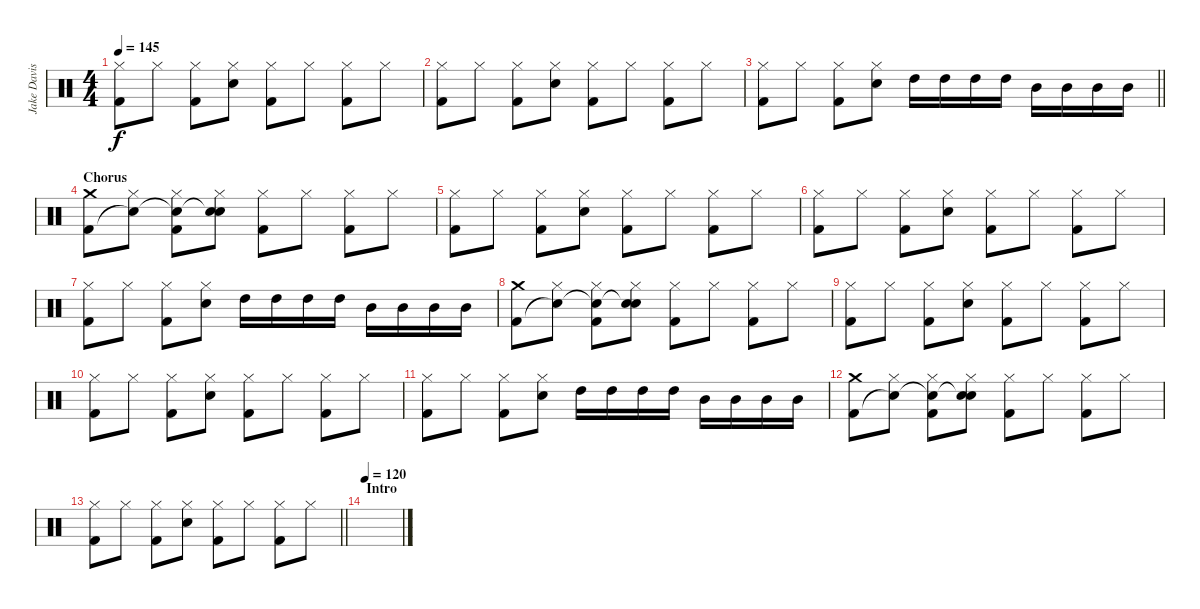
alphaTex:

\track ("Jake Davison (Drums)" "Jake Davis") {instrument percussion}
\staff {score}
\articulation defaults
\ts (4 4)
\tempo 145
\clef neutral
\ks c
("Hi-Hat (closed)" "Kick (hit) 2").8{dy f} "Hi-Hat (closed)".8 ("Hi-Hat (closed)" "Kick (hit) 2").8 ("Hi-Hat (closed)" "Electric Snare (hit)").8 ("Hi-Hat (closed)" "Kick (hit) 2").8 "Hi-Hat (closed)".8 ("Hi-Hat (closed)" "Kick (hit) 2").8 "Hi-Hat (closed)".8 |
("Hi-Hat (closed)" "Kick (hit) 2").8 "Hi-Hat (closed)".8 ("Hi-Hat (closed)" "Kick (hit) 2").8 ("Hi-Hat (closed)" "Electric Snare (hit)").8 ("Hi-Hat (closed)" "Kick (hit) 2").8 "Hi-Hat (closed)".8 ("Hi-Hat (closed)" "Kick (hit) 2").8 "Hi-Hat (closed)".8 |
\barLineRight lightlight
("Hi-Hat (closed)" "Kick (hit) 2").8 "Hi-Hat (closed)".8 ("Hi-Hat (closed)" "Kick (hit) 2").8 ("Hi-Hat (closed)" "Electric Snare (hit)").8 "High Tom (hit)".16 "High Tom (hit)".16 "High Tom (hit)".16 "High Tom (hit)".16 "Mid Tom (hit)".16 "Mid Tom (hit)".16 "Mid Tom (hit)".16 "Mid Tom (hit)".16 |
\section ("" "Chorus")
("Crash medium (hit)" "Kick (hit) 2").8 ("Hi-Hat (closed)" "Snare (hit)"{t}).8 ("Hi-Hat (closed)" "Snare (hit)"{t} "Kick (hit) 2").8 ("Hi-Hat (closed)" "Snare (hit)"{t} "Electric Snare (hit)").8 ("Hi-Hat (closed)" "Kick (hit) 2").8 "Hi-Hat (closed)".8 ("Hi-Hat (closed)" "Kick (hit) 2").8 "Hi-Hat (closed)".8 |
("Hi-Hat (closed)" "Kick (hit) 2").8 "Hi-Hat (closed)".8 ("Hi-Hat (closed)" "Kick (hit) 2").8 ("Hi-Hat (closed)" "Electric Snare (hit)").8 ("Hi-Hat (closed)" "Kick (hit) 2").8 "Hi-Hat (closed)".8 ("Hi-Hat (closed)" "Kick (hit) 2").8 "Hi-Hat (closed)".8 |
("Hi-Hat (closed)" "Kick (hit) 2").8 "Hi-Hat (closed)".8 ("Hi-Hat (closed)" "Kick (hit) 2").8 ("Hi-Hat (closed)" "Electric Snare (hit)").8 ("Hi-Hat (closed)" "Kick (hit) 2").8 "Hi-Hat (closed)".8 ("Hi-Hat (closed)" "Kick (hit) 2").8 "Hi-Hat (closed)".8 |
("Hi-Hat (closed)" "Kick (hit) 2").8 "Hi-Hat (closed)".8 ("Hi-Hat (closed)" "Kick (hit) 2").8 ("Hi-Hat (closed)" "Electric Snare (hit)").8 "High Tom (hit)".16 "High Tom (hit)".16 "High Tom (hit)".16 "High Tom (hit)".16 "Mid Tom (hit)".16 "Mid Tom (hit)".16 "Mid Tom (hit)".16 "Mid Tom (hit)".16 |
("Crash medium (hit)" "Kick (hit) 2").8 ("Hi-Hat (closed)" "Snare (hit)"{t}).8 ("Hi-Hat (closed)" "Snare (hit)"{t} "Kick (hit) 2").8 ("Hi-Hat (closed)" "Snare (hit)"{t} "Electric Snare (hit)").8 ("Hi-Hat (closed)" "Kick (hit) 2").8 "Hi-Hat (closed)".8 ("Hi-Hat (closed)" "Kick (hit) 2").8 "Hi-Hat (closed)".8 |
("Hi-Hat (closed)" "Kick (hit) 2").8 "Hi-Hat (closed)".8 ("Hi-Hat (closed)" "Kick (hit) 2").8 ("Hi-Hat (closed)" "Electric Snare (hit)").8 ("Hi-Hat (closed)" "Kick (hit) 2").8 "Hi-Hat (closed)".8 ("Hi-Hat (closed)" "Kick (hit) 2").8 "Hi-Hat (closed)".8 |
("Hi-Hat (closed)" "Kick (hit) 2").8 "Hi-Hat (closed)".8 ("Hi-Hat (closed)" "Kick (hit) 2").8 ("Hi-Hat (closed)" "Electric Snare (hit)").8 ("Hi-Hat (closed)" "Kick (hit) 2").8 "Hi-Hat (closed)".8 ("Hi-Hat (closed)" "Kick (hit) 2").8 "Hi-Hat (closed)".8 |
("Hi-Hat (closed)" "Kick (hit) 2").8 "Hi-Hat (closed)".8 ("Hi-Hat (closed)" "Kick (hit) 2").8 ("Hi-Hat (closed)" "Electric Snare (hit)").8 "High Tom (hit)".16 "High Tom (hit)".16 "High Tom (hit)".16 "High Tom (hit)".16 "Mid Tom (hit)".16 "Mid Tom (hit)".16 "Mid Tom (hit)".16 "Mid Tom (hit)".16 |
("Crash medium (hit)" "Kick (hit) 2").8 ("Hi-Hat (closed)" "Snare (hit)"{t}).8 ("Hi-Hat (closed)" "Snare (hit)"{t} "Kick (hit) 2").8 ("Hi-Hat (closed)" "Snare (hit)"{t} "Electric Snare (hit)").8 ("Hi-Hat (closed)" "Kick (hit) 2").8 "Hi-Hat (closed)".8 ("Hi-Hat (closed)" "Kick (hit) 2").8 "Hi-Hat (closed)".8 |
\barLineRight lightlight
("Hi-Hat (closed)" "Kick (hit) 2").8 "Hi-Hat (closed)".8 ("Hi-Hat (closed)" "Kick (hit) 2").8 ("Hi-Hat (closed)" "Electric Snare (hit)").8 ("Hi-Hat (closed)" "Kick (hit) 2").8 "Hi-Hat (closed)".8 ("Hi-Hat (closed)" "Kick (hit) 2").8 "Hi-Hat (closed)".8 |
\section ("" "Intro")
\tempo 120
